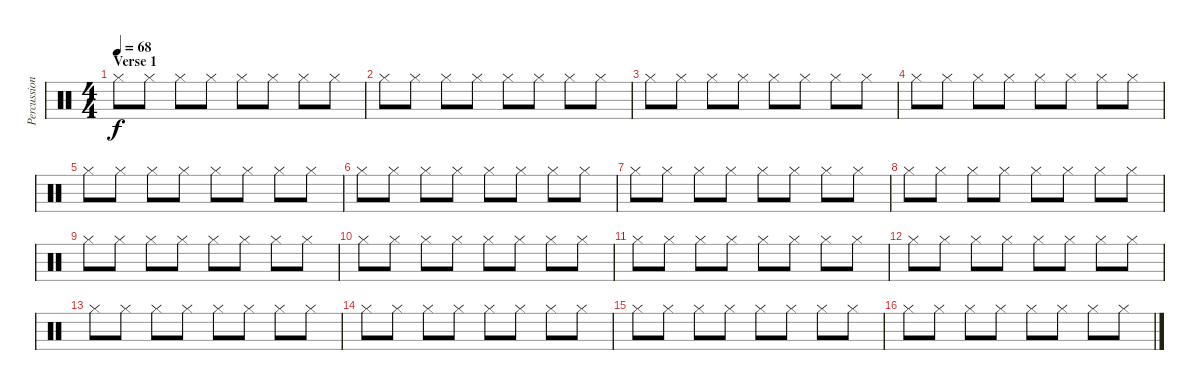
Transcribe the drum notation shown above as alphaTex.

\track ("Percussion" "Percussion") {instrument percussion}
\staff {score}
\articulation defaults
\ts (4 4)
\section ("" "Verse 1")
\tempo 68
\clef neutral
\ks c "Hi-Hat (closed)".8{dy f} "Hi-Hat (closed)".8 "Hi-Hat (closed)".8 "Hi-Hat (closed)".8 "Hi-Hat (closed)".8 "Hi-Hat (closed)".8 "Hi-Hat (closed)".8 "Hi-Hat (closed)".8
|
"Hi-Hat (closed)".8 "Hi-Hat (closed)".8 "Hi-Hat (closed)".8 "Hi-Hat (closed)".8 "Hi-Hat (closed)".8 "Hi-Hat (closed)".8 "Hi-Hat (closed)".8 "Hi-Hat (closed)".8 |
"Hi-Hat (closed)".8 "Hi-Hat (closed)".8 "Hi-Hat (closed)".8 "Hi-Hat (closed)".8 "Hi-Hat (closed)".8 "Hi-Hat (closed)".8 "Hi-Hat (closed)".8 "Hi-Hat (closed)".8 |
"Hi-Hat (closed)".8 "Hi-Hat (closed)".8 "Hi-Hat (closed)".8 "Hi-Hat (closed)".8 "Hi-Hat (closed)".8 "Hi-Hat (closed)".8 "Hi-Hat (closed)".8 "Hi-Hat (closed)".8 |
"Hi-Hat (closed)".8 "Hi-Hat (closed)".8 "Hi-Hat (closed)".8 "Hi-Hat (closed)".8 "Hi-Hat (closed)".8 "Hi-Hat (closed)".8 "Hi-Hat (closed)".8 "Hi-Hat (closed)".8 |
"Hi-Hat (closed)".8 "Hi-Hat (closed)".8 "Hi-Hat (closed)".8 "Hi-Hat (closed)".8 "Hi-Hat (closed)".8 "Hi-Hat (closed)".8 "Hi-Hat (closed)".8 "Hi-Hat (closed)".8 |
"Hi-Hat (closed)".8 "Hi-Hat (closed)".8 "Hi-Hat (closed)".8 "Hi-Hat (closed)".8 "Hi-Hat (closed)".8 "Hi-Hat (closed)".8 "Hi-Hat (closed)".8 "Hi-Hat (closed)".8 |
"Hi-Hat (closed)".8 "Hi-Hat (closed)".8 "Hi-Hat (closed)".8 "Hi-Hat (closed)".8 "Hi-Hat (closed)".8 "Hi-Hat (closed)".8 "Hi-Hat (closed)".8 "Hi-Hat (closed)".8 |
"Hi-Hat (closed)".8 "Hi-Hat (closed)".8 "Hi-Hat (closed)".8 "Hi-Hat (closed)".8 "Hi-Hat (closed)".8 "Hi-Hat (closed)".8 "Hi-Hat (closed)".8 "Hi-Hat (closed)".8 |
"Hi-Hat (closed)".8 "Hi-Hat (closed)".8 "Hi-Hat (closed)".8 "Hi-Hat (closed)".8 "Hi-Hat (closed)".8 "Hi-Hat (closed)".8 "Hi-Hat (closed)".8 "Hi-Hat (closed)".8 |
"Hi-Hat (closed)".8 "Hi-Hat (closed)".8 "Hi-Hat (closed)".8 "Hi-Hat (closed)".8 "Hi-Hat (closed)".8 "Hi-Hat (closed)".8 "Hi-Hat (closed)".8 "Hi-Hat (closed)".8 |
"Hi-Hat (closed)".8 "Hi-Hat (closed)".8 "Hi-Hat (closed)".8 "Hi-Hat (closed)".8 "Hi-Hat (closed)".8 "Hi-Hat (closed)".8 "Hi-Hat (closed)".8 "Hi-Hat (closed)".8 |
"Hi-Hat (closed)".8 "Hi-Hat (closed)".8 "Hi-Hat (closed)".8 "Hi-Hat (closed)".8 "Hi-Hat (closed)".8 "Hi-Hat (closed)".8 "Hi-Hat (closed)".8 "Hi-Hat (closed)".8 |
"Hi-Hat (closed)".8 "Hi-Hat (closed)".8 "Hi-Hat (closed)".8 "Hi-Hat (closed)".8 "Hi-Hat (closed)".8 "Hi-Hat (closed)".8 "Hi-Hat (closed)".8 "Hi-Hat (closed)".8 |
"Hi-Hat (closed)".8 "Hi-Hat (closed)".8 "Hi-Hat (closed)".8 "Hi-Hat (closed)".8 "Hi-Hat (closed)".8 "Hi-Hat (closed)".8 "Hi-Hat (closed)".8 "Hi-Hat (closed)".8 |
"Hi-Hat (closed)".8 "Hi-Hat (closed)".8 "Hi-Hat (closed)".8 "Hi-Hat (closed)".8 "Hi-Hat (closed)".8 "Hi-Hat (closed)".8 "Hi-Hat (closed)".8 "Hi-Hat (closed)".8
